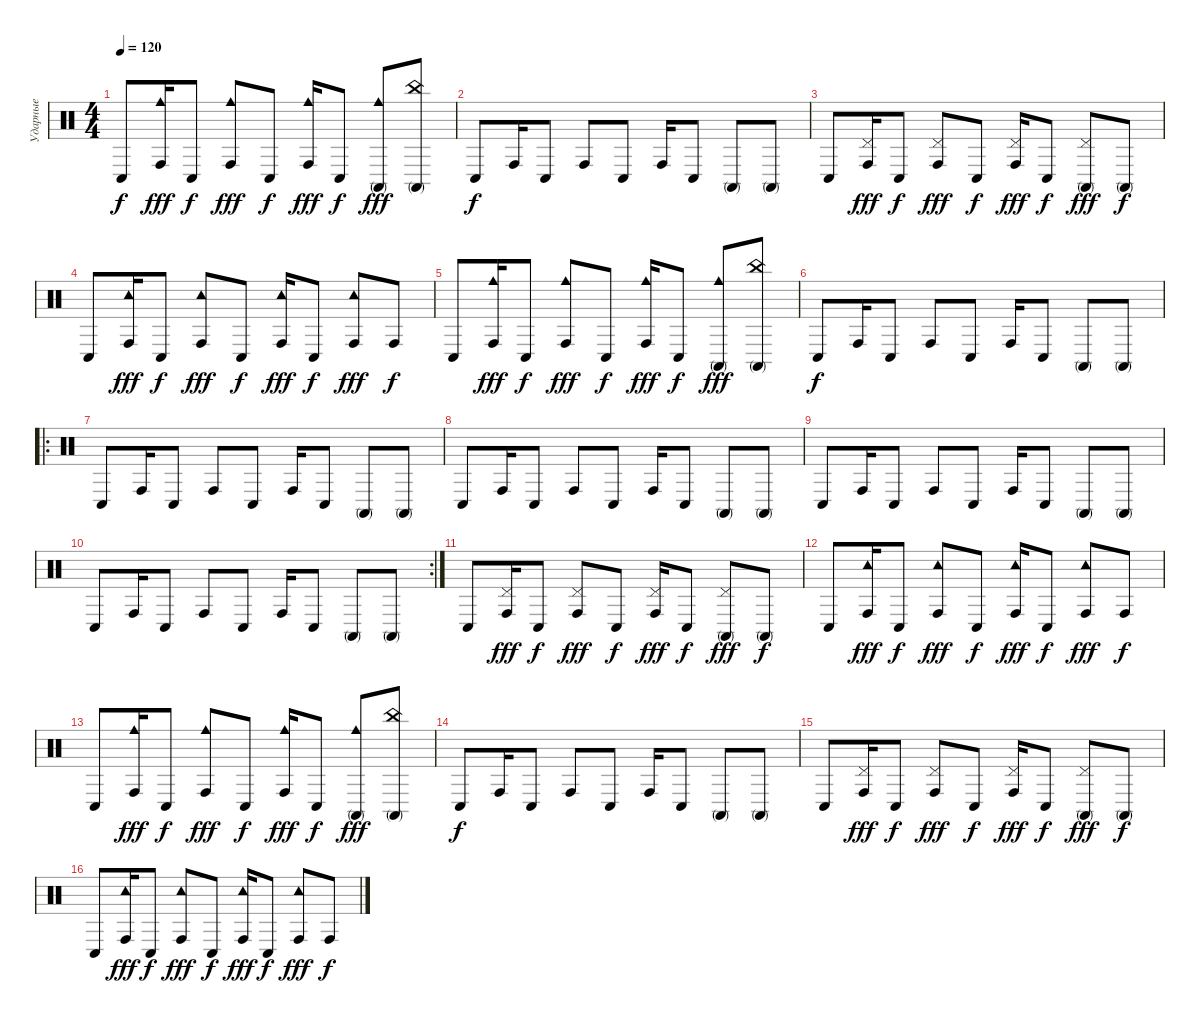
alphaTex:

\track ("Ударные" "Ударные") {instrument percussion}
\staff {score}
\articulation defaults
\ts (4 4)
\tempo 120
\clef neutral
\ks c "Conga low (hit)".8{dy f}
("Conga high (hit)" "Cowbell medium (hit)").16{dy fff} "Conga low (hit)".8{dy f} ("Conga high (hit)" "Cowbell medium (hit)").8{dy fff} "Conga low (hit)".8{dy f} ("Conga high (hit)" "Cowbell medium (hit)").16{dy fff} "Conga low (hit)".8{dy f} ("Conga high (mute)" "Cowbell medium (hit)").8{dy fff} ("Conga high (mute)" "China (hit)").8 |
"Conga low (hit)".8{dy f} "Conga high (hit)".16 "Conga low (hit)".8 "Conga high (hit)".8 "Conga low (hit)".8 "Conga high (hit)".16 "Conga low (hit)".8 "Conga high (mute)".8 "Conga high (mute)".8 |
"Conga low (hit)".8 ("Conga high (hit)" "Pedal Hi-Hat (hit)").16{dy fff} "Conga low (hit)".8{dy f} ("Conga high (hit)" "Pedal Hi-Hat (hit)").8{dy fff} "Conga low (hit)".8{dy f} ("Conga high (hit)" "Pedal Hi-Hat (hit)").16{dy fff} "Conga low (hit)".8{dy f} ("Conga high (mute)" "Pedal Hi-Hat (hit)").8{dy fff} "Conga high (mute)".8{dy f} |
"Conga low (hit)".8 ("Conga high (hit)" "Tambourine (hit)").16{dy fff} "Conga low (hit)".8{dy f} ("Conga high (hit)" "Tambourine (hit)").8{dy fff} "Conga low (hit)".8{dy f} ("Conga high (hit)" "Tambourine (hit)").16{dy fff} "Conga low (hit)".8{dy f} ("Conga high (hit)" "Tambourine (hit)").8{dy fff} "Conga high (hit)".8{dy f} |
"Conga low (hit)".8 ("Conga high (hit)" "Cowbell medium (hit)").16{dy fff} "Conga low (hit)".8{dy f} ("Conga high (hit)" "Cowbell medium (hit)").8{dy fff} "Conga low (hit)".8{dy f} ("Conga high (hit)" "Cowbell medium (hit)").16{dy fff} "Conga low (hit)".8{dy f} ("Conga high (mute)" "Cowbell medium (hit)").8{dy fff} ("Conga high (mute)" "China (hit)").8 |
"Conga low (hit)".8{dy f} "Conga high (hit)".16 "Conga low (hit)".8 "Conga high (hit)".8 "Conga low (hit)".8 "Conga high (hit)".16 "Conga low (hit)".8 "Conga high (mute)".8 "Conga high (mute)".8 |
\ro "Conga low (hit)".8 "Conga high (hit)".16 "Conga low (hit)".8 "Conga high (hit)".8 "Conga low (hit)".8 "Conga high (hit)".16 "Conga low (hit)".8 "Conga high (mute)".8 "Conga high (mute)".8
|
"Conga low (hit)".8 "Conga high (hit)".16 "Conga low (hit)".8 "Conga high (hit)".8 "Conga low (hit)".8 "Conga high (hit)".16 "Conga low (hit)".8 "Conga high (mute)".8 "Conga high (mute)".8 |
"Conga low (hit)".8 "Conga high (hit)".16 "Conga low (hit)".8 "Conga high (hit)".8 "Conga low (hit)".8 "Conga high (hit)".16 "Conga low (hit)".8 "Conga high (mute)".8 "Conga high (mute)".8 |
\rc 2 "Conga low (hit)".8 "Conga high (hit)".16 "Conga low (hit)".8 "Conga high (hit)".8 "Conga low (hit)".8 "Conga high (hit)".16 "Conga low (hit)".8 "Conga high (mute)".8 "Conga high (mute)".8
|
"Conga low (hit)".8 ("Conga high (hit)" "Pedal Hi-Hat (hit)").16{dy fff} "Conga low (hit)".8{dy f} ("Conga high (hit)" "Pedal Hi-Hat (hit)").8{dy fff} "Conga low (hit)".8{dy f} ("Conga high (hit)" "Pedal Hi-Hat (hit)").16{dy fff} "Conga low (hit)".8{dy f} ("Conga high (mute)" "Pedal Hi-Hat (hit)").8{dy fff} "Conga high (mute)".8{dy f} |
"Conga low (hit)".8 ("Conga high (hit)" "Tambourine (hit)").16{dy fff} "Conga low (hit)".8{dy f} ("Conga high (hit)" "Tambourine (hit)").8{dy fff} "Conga low (hit)".8{dy f} ("Conga high (hit)" "Tambourine (hit)").16{dy fff} "Conga low (hit)".8{dy f} ("Conga high (hit)" "Tambourine (hit)").8{dy fff} "Conga high (hit)".8{dy f} |
"Conga low (hit)".8 ("Conga high (hit)" "Cowbell medium (hit)").16{dy fff} "Conga low (hit)".8{dy f} ("Conga high (hit)" "Cowbell medium (hit)").8{dy fff} "Conga low (hit)".8{dy f} ("Conga high (hit)" "Cowbell medium (hit)").16{dy fff} "Conga low (hit)".8{dy f} ("Conga high (mute)" "Cowbell medium (hit)").8{dy fff} ("Conga high (mute)" "China (hit)").8 |
"Conga low (hit)".8{dy f} "Conga high (hit)".16 "Conga low (hit)".8 "Conga high (hit)".8 "Conga low (hit)".8 "Conga high (hit)".16 "Conga low (hit)".8 "Conga high (mute)".8 "Conga high (mute)".8 |
"Conga low (hit)".8 ("Conga high (hit)" "Pedal Hi-Hat (hit)").16{dy fff} "Conga low (hit)".8{dy f} ("Conga high (hit)" "Pedal Hi-Hat (hit)").8{dy fff} "Conga low (hit)".8{dy f} ("Conga high (hit)" "Pedal Hi-Hat (hit)").16{dy fff} "Conga low (hit)".8{dy f} ("Conga high (mute)" "Pedal Hi-Hat (hit)").8{dy fff} "Conga high (mute)".8{dy f} |
"Conga low (hit)".8 ("Conga high (hit)" "Tambourine (hit)").16{dy fff} "Conga low (hit)".8{dy f} ("Conga high (hit)" "Tambourine (hit)").8{dy fff} "Conga low (hit)".8{dy f} ("Conga high (hit)" "Tambourine (hit)").16{dy fff} "Conga low (hit)".8{dy f} ("Conga high (hit)" "Tambourine (hit)").8{dy fff} "Conga high (hit)".8{dy f}
